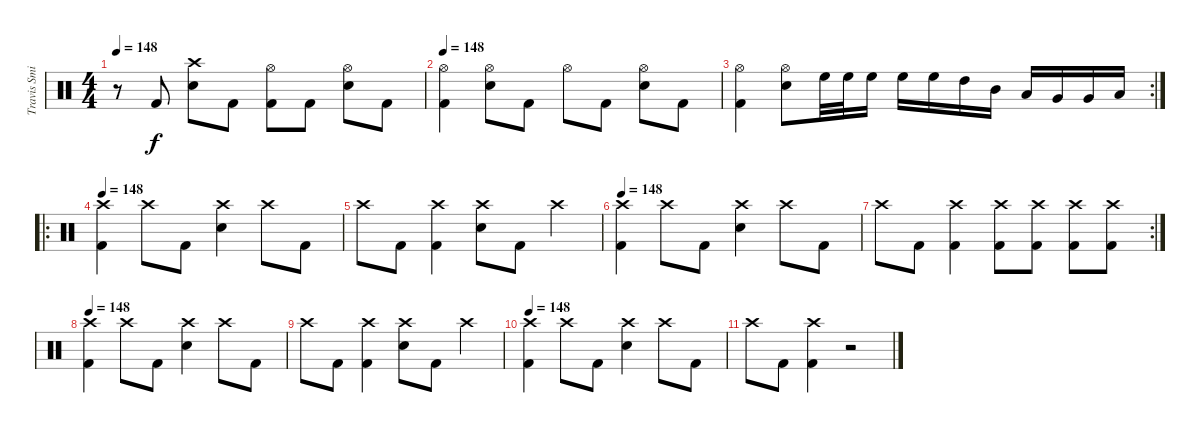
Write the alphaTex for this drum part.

\track ("Travis Smith" "Travis Smi") {instrument percussion}
\staff {score}
\articulation defaults
\ts (4 4)
\tempo 148
\clef neutral
\ks c
r.8{dy f} "Kick (hit) 2".8 ("Snare (hit) 2" "Crash high (hit)").8 "Kick (hit) 2".8 ("Kick (hit) 2" "Hi-Hat (open)").8 "Kick (hit) 2".8 ("Snare (hit) 2" "Hi-Hat (open)").8 "Kick (hit) 2".8 |
\tempo 148
("Kick (hit) 2" "Hi-Hat (open)").4 ("Snare (hit) 2" "Hi-Hat (open)").8 "Kick (hit) 2".8 "Hi-Hat (open)".8 "Kick (hit) 2".8 ("Snare (hit) 2" "Hi-Hat (open)").8 "Kick (hit) 2".8 |
\rc 2
("Kick (hit) 2" "Hi-Hat (open)").4 ("Snare (hit) 2" "Hi-Hat (open)").8 "High Floor Tom (hit)".32 "High Floor Tom (hit)".32 "High Floor Tom (hit)".16 "High Floor Tom (hit)".16 "High Floor Tom (hit)".16 "High Tom (hit)".16 "Mid Tom (hit)".16 "Low Tom (hit)".16 "Very Low Tom (hit)".16 "Very Low Tom (hit)".16 "Low Floor Tom (hit)".16 |
\ro
\tempo 148
("Kick (hit) 2" "Crash high (hit)").4 "Crash high (hit)".8 "Kick (hit) 2".8 ("Snare (hit) 2" "Crash high (hit)").4 "Crash high (hit)".8 "Kick (hit) 2".8 |
"Crash high (hit)".8 "Kick (hit) 2".8 ("Kick (hit) 2" "Crash high (hit)").4 ("Snare (hit) 2" "Crash high (hit)").8 "Kick (hit) 2".8 "Crash high (hit)".4 |
\tempo 148
("Kick (hit) 2" "Crash high (hit)").4 "Crash high (hit)".8 "Kick (hit) 2".8 ("Snare (hit) 2" "Crash high (hit)").4 "Crash high (hit)".8 "Kick (hit) 2".8 |
\rc 2 "Crash high (hit)".8 "Kick (hit) 2".8
("Kick (hit) 2" "Crash high (hit)").4 ("Kick (hit) 2" "Crash high (hit)").8 ("Kick (hit) 2" "Crash high (hit)").8 ("Kick (hit) 2" "Crash high (hit)").8 ("Kick (hit) 2" "Crash high (hit)").8 |
\tempo 148
("Kick (hit) 2" "Crash high (hit)").4 "Crash high (hit)".8 "Kick (hit) 2".8 ("Snare (hit) 2" "Crash high (hit)").4 "Crash high (hit)".8 "Kick (hit) 2".8 |
"Crash high (hit)".8 "Kick (hit) 2".8 ("Kick (hit) 2" "Crash high (hit)").4 ("Snare (hit) 2" "Crash high (hit)").8 "Kick (hit) 2".8 "Crash high (hit)".4 |
\tempo 148
("Kick (hit) 2" "Crash high (hit)").4 "Crash high (hit)".8 "Kick (hit) 2".8 ("Snare (hit) 2" "Crash high (hit)").4 "Crash high (hit)".8 "Kick (hit) 2".8 |
"Crash high (hit)".8 "Kick (hit) 2".8 ("Kick (hit) 2" "Crash high (hit)").4 r.2
